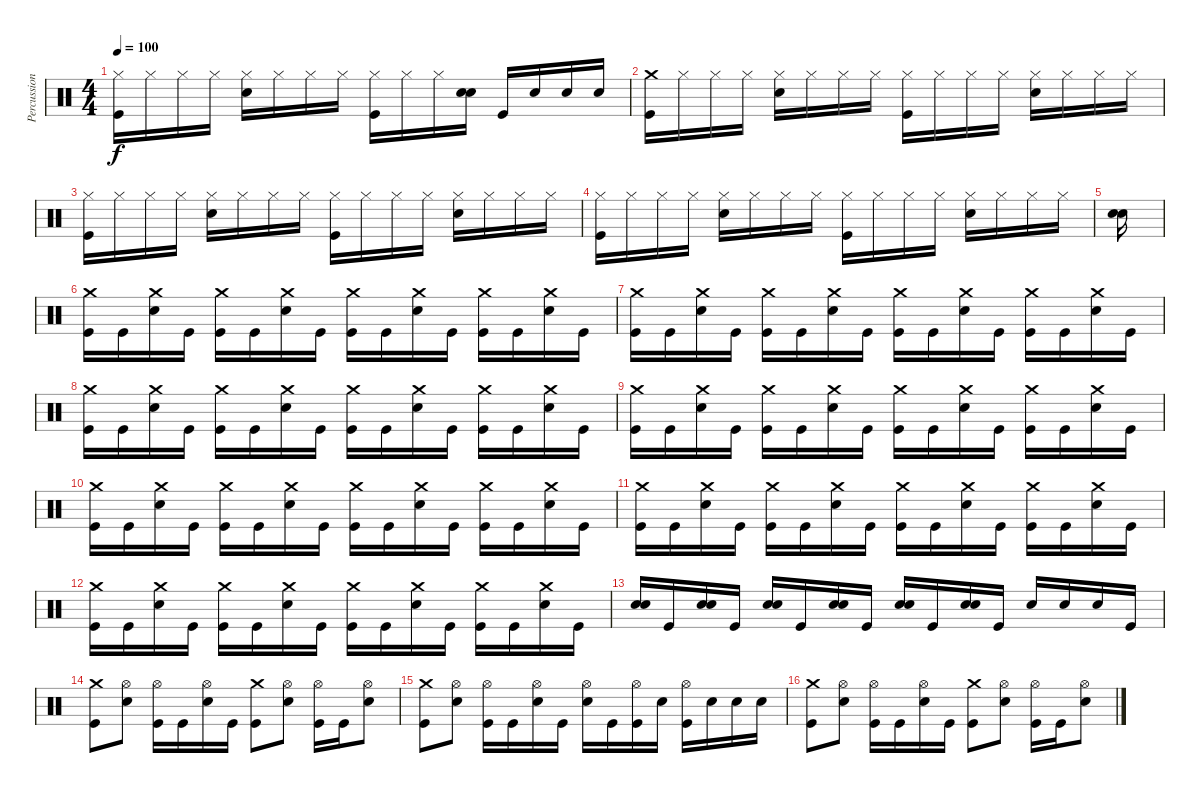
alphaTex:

\track ("Percussion" "Percussion") {instrument percussion}
\staff {score}
\articulation defaults
\ts (4 4)
\tempo 100
\clef neutral
\ks c
("Hi-Hat (closed)" "Kick (hit)").16{dy f} "Hi-Hat (closed)".16 "Hi-Hat (closed)".16 "Hi-Hat (closed)".16 ("Hi-Hat (closed)" "Snare (hit) 2").16 "Hi-Hat (closed)".16 "Hi-Hat (closed)".16 "Hi-Hat (closed)".16 ("Hi-Hat (closed)" "Kick (hit)").16 "Hi-Hat (closed)".16 "Hi-Hat (closed)".16 ("Snare (hit) 2" "Snare (hit) 2").16 "Kick (hit)".16 "Snare (hit) 2".16 "Snare (hit) 2".16 "Snare (hit) 2".16 |
("Crash medium (hit)" "Kick (hit)").16 "Hi-Hat (closed)".16 "Hi-Hat (closed)".16 "Hi-Hat (closed)".16 ("Hi-Hat (closed)" "Snare (hit) 2").16 "Hi-Hat (closed)".16 "Hi-Hat (closed)".16 "Hi-Hat (closed)".16 ("Hi-Hat (closed)" "Kick (hit)").16 "Hi-Hat (closed)".16 "Hi-Hat (closed)".16 "Hi-Hat (closed)".16 ("Hi-Hat (closed)" "Snare (hit) 2").16 "Hi-Hat (closed)".16 "Hi-Hat (closed)".16 "Hi-Hat (closed)".16 |
("Hi-Hat (closed)" "Kick (hit)").16 "Hi-Hat (closed)".16 "Hi-Hat (closed)".16 "Hi-Hat (closed)".16 ("Hi-Hat (closed)" "Snare (hit) 2").16 "Hi-Hat (closed)".16 "Hi-Hat (closed)".16 "Hi-Hat (closed)".16 ("Hi-Hat (closed)" "Kick (hit)").16 "Hi-Hat (closed)".16 "Hi-Hat (closed)".16 "Hi-Hat (closed)".16 ("Hi-Hat (closed)" "Snare (hit) 2").16 "Hi-Hat (closed)".16 "Hi-Hat (closed)".16 "Hi-Hat (closed)".16 |
("Hi-Hat (closed)" "Kick (hit)").16 "Hi-Hat (closed)".16 "Hi-Hat (closed)".16 "Hi-Hat (closed)".16 ("Hi-Hat (closed)" "Snare (hit) 2").16 "Hi-Hat (closed)".16 "Hi-Hat (closed)".16 "Hi-Hat (closed)".16 ("Hi-Hat (closed)" "Kick (hit)").16 "Hi-Hat (closed)".16 "Hi-Hat (closed)".16 "Hi-Hat (closed)".16 ("Hi-Hat (closed)" "Snare (hit) 2").16 "Hi-Hat (closed)".16 "Hi-Hat (closed)".16 "Hi-Hat (closed)".16 |
("Snare (hit) 2" "Snare (hit) 2").16 |
("Crash medium (hit)" "Kick (hit)").16 "Kick (hit)".16 ("Crash medium (hit)" "Snare (hit) 2").16 "Kick (hit)".16 ("Crash medium (hit)" "Kick (hit)").16 "Kick (hit)".16 ("Crash medium (hit)" "Snare (hit) 2").16 "Kick (hit)".16 ("Crash medium (hit)" "Kick (hit)").16 "Kick (hit)".16 ("Crash medium (hit)" "Snare (hit) 2").16 "Kick (hit)".16 ("Crash medium (hit)" "Kick (hit)").16 "Kick (hit)".16 ("Crash medium (hit)" "Snare (hit) 2").16 "Kick (hit)".16 |
("Crash medium (hit)" "Kick (hit)").16 "Kick (hit)".16 ("Crash medium (hit)" "Snare (hit) 2").16 "Kick (hit)".16 ("Crash medium (hit)" "Kick (hit)").16 "Kick (hit)".16 ("Crash medium (hit)" "Snare (hit) 2").16 "Kick (hit)".16 ("Crash medium (hit)" "Kick (hit)").16 "Kick (hit)".16 ("Crash medium (hit)" "Snare (hit) 2").16 "Kick (hit)".16 ("Crash medium (hit)" "Kick (hit)").16 "Kick (hit)".16 ("Crash medium (hit)" "Snare (hit) 2").16 "Kick (hit)".16 |
("Crash medium (hit)" "Kick (hit)").16 "Kick (hit)".16 ("Crash medium (hit)" "Snare (hit) 2").16 "Kick (hit)".16 ("Crash medium (hit)" "Kick (hit)").16 "Kick (hit)".16 ("Crash medium (hit)" "Snare (hit) 2").16 "Kick (hit)".16 ("Crash medium (hit)" "Kick (hit)").16 "Kick (hit)".16 ("Crash medium (hit)" "Snare (hit) 2").16 "Kick (hit)".16 ("Crash medium (hit)" "Kick (hit)").16 "Kick (hit)".16 ("Crash medium (hit)" "Snare (hit) 2").16 "Kick (hit)".16 |
("Crash medium (hit)" "Kick (hit)").16 "Kick (hit)".16 ("Crash medium (hit)" "Snare (hit) 2").16 "Kick (hit)".16 ("Crash medium (hit)" "Kick (hit)").16 "Kick (hit)".16 ("Crash medium (hit)" "Snare (hit) 2").16 "Kick (hit)".16 ("Crash medium (hit)" "Kick (hit)").16 "Kick (hit)".16 ("Crash medium (hit)" "Snare (hit) 2").16 "Kick (hit)".16 ("Crash medium (hit)" "Kick (hit)").16 "Kick (hit)".16 ("Crash medium (hit)" "Snare (hit) 2").16 "Kick (hit)".16 |
("Crash medium (hit)" "Kick (hit)").16 "Kick (hit)".16 ("Crash medium (hit)" "Snare (hit) 2").16 "Kick (hit)".16 ("Crash medium (hit)" "Kick (hit)").16 "Kick (hit)".16 ("Crash medium (hit)" "Snare (hit) 2").16 "Kick (hit)".16 ("Crash medium (hit)" "Kick (hit)").16 "Kick (hit)".16 ("Crash medium (hit)" "Snare (hit) 2").16 "Kick (hit)".16 ("Crash medium (hit)" "Kick (hit)").16 "Kick (hit)".16 ("Crash medium (hit)" "Snare (hit) 2").16 "Kick (hit)".16 |
("Crash medium (hit)" "Kick (hit)").16 "Kick (hit)".16 ("Crash medium (hit)" "Snare (hit) 2").16 "Kick (hit)".16 ("Crash medium (hit)" "Kick (hit)").16 "Kick (hit)".16 ("Crash medium (hit)" "Snare (hit) 2").16 "Kick (hit)".16 ("Crash medium (hit)" "Kick (hit)").16 "Kick (hit)".16 ("Crash medium (hit)" "Snare (hit) 2").16 "Kick (hit)".16 ("Crash medium (hit)" "Kick (hit)").16 "Kick (hit)".16 ("Crash medium (hit)" "Snare (hit) 2").16 "Kick (hit)".16 |
("Crash medium (hit)" "Kick (hit)").16 "Kick (hit)".16 ("Crash medium (hit)" "Snare (hit) 2").16 "Kick (hit)".16 ("Crash medium (hit)" "Kick (hit)").16 "Kick (hit)".16 ("Crash medium (hit)" "Snare (hit) 2").16 "Kick (hit)".16 ("Crash medium (hit)" "Kick (hit)").16 "Kick (hit)".16 ("Crash medium (hit)" "Snare (hit) 2").16 "Kick (hit)".16 ("Crash medium (hit)" "Kick (hit)").16 "Kick (hit)".16 ("Crash medium (hit)" "Snare (hit) 2").16 "Kick (hit)".16 |
("Snare (hit) 2" "Snare (hit) 2").16 "Kick (hit)".16 ("Snare (hit) 2" "Snare (hit) 2").16 "Kick (hit)".16 ("Snare (hit) 2" "Snare (hit) 2").16 "Kick (hit)".16 ("Snare (hit) 2" "Snare (hit) 2").16 "Kick (hit)".16 ("Snare (hit) 2" "Snare (hit) 2").16 "Kick (hit)".16 ("Snare (hit) 2" "Snare (hit) 2").16 "Kick (hit)".16 "Snare (hit) 2".16 "Snare (hit) 2".16 "Snare (hit) 2".16 "Kick (hit)".16 |
("Crash medium (hit)" "Kick (hit)").8 ("Hi-Hat (open)" "Snare (hit) 2").8 ("Hi-Hat (open)" "Kick (hit)").16 "Kick (hit)".16 ("Hi-Hat (open)" "Snare (hit) 2").16 "Kick (hit)".16 ("Crash medium (hit)" "Kick (hit)").8 ("Hi-Hat (open)" "Snare (hit) 2").8 ("Hi-Hat (open)" "Kick (hit)").16 "Kick (hit)".16 ("Hi-Hat (open)" "Snare (hit) 2").8 |
("Crash medium (hit)" "Kick (hit)").8 ("Hi-Hat (open)" "Snare (hit) 2").8 ("Hi-Hat (open)" "Kick (hit)").16 "Kick (hit)".16 ("Hi-Hat (open)" "Snare (hit) 2").16 "Kick (hit)".16 ("Hi-Hat (open)" "Snare (hit) 2").16 "Kick (hit)".16 ("Hi-Hat (open)" "Kick (hit)").16 "Snare (hit) 2".16 ("Hi-Hat (open)" "Kick (hit)").16 "Snare (hit) 2".16 "Snare (hit) 2".16 "Snare (hit) 2".16 |
("Crash medium (hit)" "Kick (hit)").8 ("Hi-Hat (open)" "Snare (hit) 2").8 ("Hi-Hat (open)" "Kick (hit)").16 "Kick (hit)".16 ("Hi-Hat (open)" "Snare (hit) 2").16 "Kick (hit)".16 ("Crash medium (hit)" "Kick (hit)").8 ("Hi-Hat (open)" "Snare (hit) 2").8 ("Hi-Hat (open)" "Kick (hit)").16 "Kick (hit)".16 ("Hi-Hat (open)" "Snare (hit) 2").8
